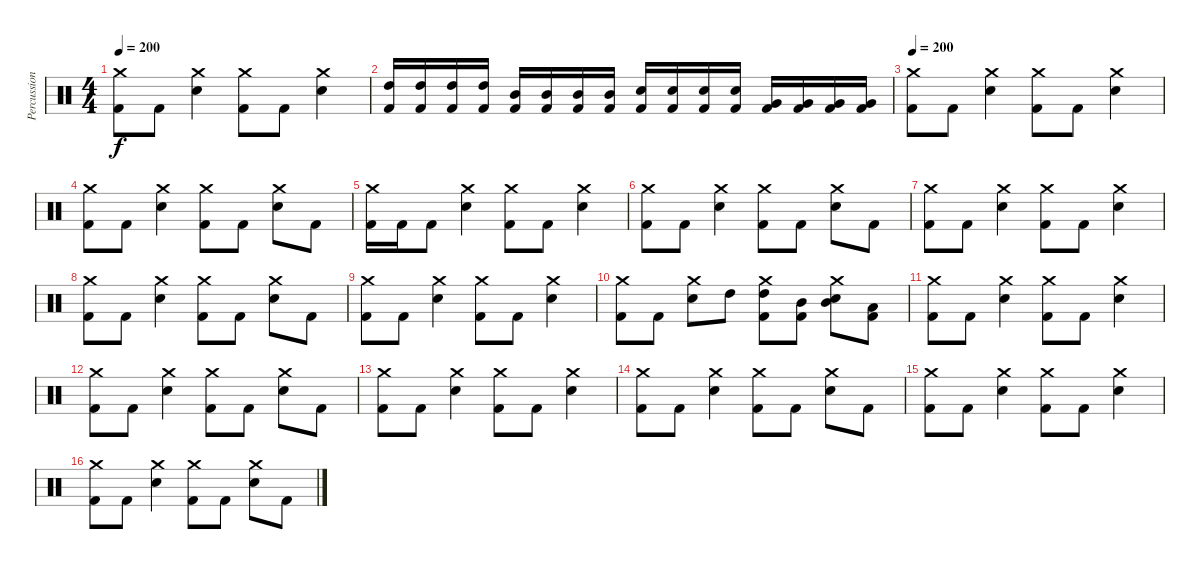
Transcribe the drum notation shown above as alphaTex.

\track ("Percussions" "Percussion") {instrument percussion}
\staff {score}
\articulation defaults
\ts (4 4)
\tempo 200
\clef neutral
\ks c
("Crash medium (hit)" "Kick (hit) 2").8{dy f} "Kick (hit) 2".8 ("Crash medium (hit)" "Electric Snare (hit)").4 ("Crash medium (hit)" "Kick (hit) 2").8 "Kick (hit) 2".8 ("Crash medium (hit)" "Electric Snare (hit)").4 |
("High Tom (hit)" "Kick (hit) 2").16 ("High Tom (hit)" "Kick (hit) 2").16 ("High Tom (hit)" "Kick (hit) 2").16 ("High Tom (hit)" "Kick (hit) 2").16 ("Mid Tom (hit)" "Kick (hit) 2").16 ("Mid Tom (hit)" "Kick (hit) 2").16 ("Mid Tom (hit)" "Kick (hit) 2").16 ("Mid Tom (hit)" "Kick (hit) 2").16 ("Electric Snare (hit)" "Kick (hit) 2").16 ("Electric Snare (hit)" "Kick (hit) 2").16 ("Electric Snare (hit)" "Kick (hit) 2").16 ("Electric Snare (hit)" "Kick (hit) 2").16 ("Very Low Tom (hit)" "Kick (hit) 2").16 ("Very Low Tom (hit)" "Kick (hit) 2").16 ("Very Low Tom (hit)" "Kick (hit) 2").16 ("Very Low Tom (hit)" "Kick (hit) 2").16 |
\tempo 200
("Crash medium (hit)" "Kick (hit) 2").8 "Kick (hit) 2".8 ("Crash medium (hit)" "Electric Snare (hit)").4 ("Crash medium (hit)" "Kick (hit) 2").8 "Kick (hit) 2".8 ("Crash medium (hit)" "Electric Snare (hit)").4 |
("Crash medium (hit)" "Kick (hit) 2").8 "Kick (hit) 2".8 ("Crash medium (hit)" "Electric Snare (hit)").4 ("Crash medium (hit)" "Kick (hit) 2").8 "Kick (hit) 2".8 ("Crash medium (hit)" "Electric Snare (hit)").8 "Kick (hit) 2".8 |
("Crash medium (hit)" "Kick (hit) 2").16 "Kick (hit) 2".16 "Kick (hit) 2".8 ("Crash medium (hit)" "Electric Snare (hit)").4 ("Crash medium (hit)" "Kick (hit) 2").8 "Kick (hit) 2".8 ("Crash medium (hit)" "Electric Snare (hit)").4 |
("Crash medium (hit)" "Kick (hit) 2").8 "Kick (hit) 2".8 ("Crash medium (hit)" "Electric Snare (hit)").4 ("Crash medium (hit)" "Kick (hit) 2").8 "Kick (hit) 2".8 ("Crash medium (hit)" "Electric Snare (hit)").8 "Kick (hit) 2".8 |
("Crash medium (hit)" "Kick (hit) 2").8 "Kick (hit) 2".8 ("Crash medium (hit)" "Electric Snare (hit)").4 ("Crash medium (hit)" "Kick (hit) 2").8 "Kick (hit) 2".8 ("Crash medium (hit)" "Electric Snare (hit)").4 |
("Crash medium (hit)" "Kick (hit) 2").8 "Kick (hit) 2".8 ("Crash medium (hit)" "Electric Snare (hit)").4 ("Crash medium (hit)" "Kick (hit) 2").8 "Kick (hit) 2".8 ("Crash medium (hit)" "Electric Snare (hit)").8 "Kick (hit) 2".8 |
("Crash medium (hit)" "Kick (hit) 2").8 "Kick (hit) 2".8 ("Crash medium (hit)" "Electric Snare (hit)").4 ("Crash medium (hit)" "Kick (hit) 2").8 "Kick (hit) 2".8 ("Crash medium (hit)" "Electric Snare (hit)").4 |
("Crash medium (hit)" "Kick (hit) 2").8 "Kick (hit) 2".8 ("Crash medium (hit)" "Electric Snare (hit)").8 "High Tom (hit)".8 ("Crash medium (hit)" "High Tom (hit)" "Kick (hit) 2").8 ("Mid Tom (hit)" "Kick (hit) 2").8 ("Crash medium (hit)" "Mid Tom (hit)" "Electric Snare (hit)").8 ("Low Tom (hit)" "Kick (hit) 2").8 |
("Crash medium (hit)" "Kick (hit) 2").8 "Kick (hit) 2".8 ("Crash medium (hit)" "Electric Snare (hit)").4 ("Crash medium (hit)" "Kick (hit) 2").8 "Kick (hit) 2".8 ("Crash medium (hit)" "Electric Snare (hit)").4 |
("Crash medium (hit)" "Kick (hit) 2").8 "Kick (hit) 2".8 ("Crash medium (hit)" "Electric Snare (hit)").4 ("Crash medium (hit)" "Kick (hit) 2").8 "Kick (hit) 2".8 ("Crash medium (hit)" "Electric Snare (hit)").8 "Kick (hit) 2".8 |
("Crash medium (hit)" "Kick (hit) 2").8 "Kick (hit) 2".8 ("Crash medium (hit)" "Electric Snare (hit)").4 ("Crash medium (hit)" "Kick (hit) 2").8 "Kick (hit) 2".8 ("Crash medium (hit)" "Electric Snare (hit)").4 |
("Crash medium (hit)" "Kick (hit) 2").8 "Kick (hit) 2".8 ("Crash medium (hit)" "Electric Snare (hit)").4 ("Crash medium (hit)" "Kick (hit) 2").8 "Kick (hit) 2".8 ("Crash medium (hit)" "Electric Snare (hit)").8 "Kick (hit) 2".8 |
("Crash medium (hit)" "Kick (hit) 2").8 "Kick (hit) 2".8 ("Crash medium (hit)" "Electric Snare (hit)").4 ("Crash medium (hit)" "Kick (hit) 2").8 "Kick (hit) 2".8 ("Crash medium (hit)" "Electric Snare (hit)").4 |
("Crash medium (hit)" "Kick (hit) 2").8 "Kick (hit) 2".8 ("Crash medium (hit)" "Electric Snare (hit)").4 ("Crash medium (hit)" "Kick (hit) 2").8 "Kick (hit) 2".8 ("Crash medium (hit)" "Electric Snare (hit)").8 "Kick (hit) 2".8
